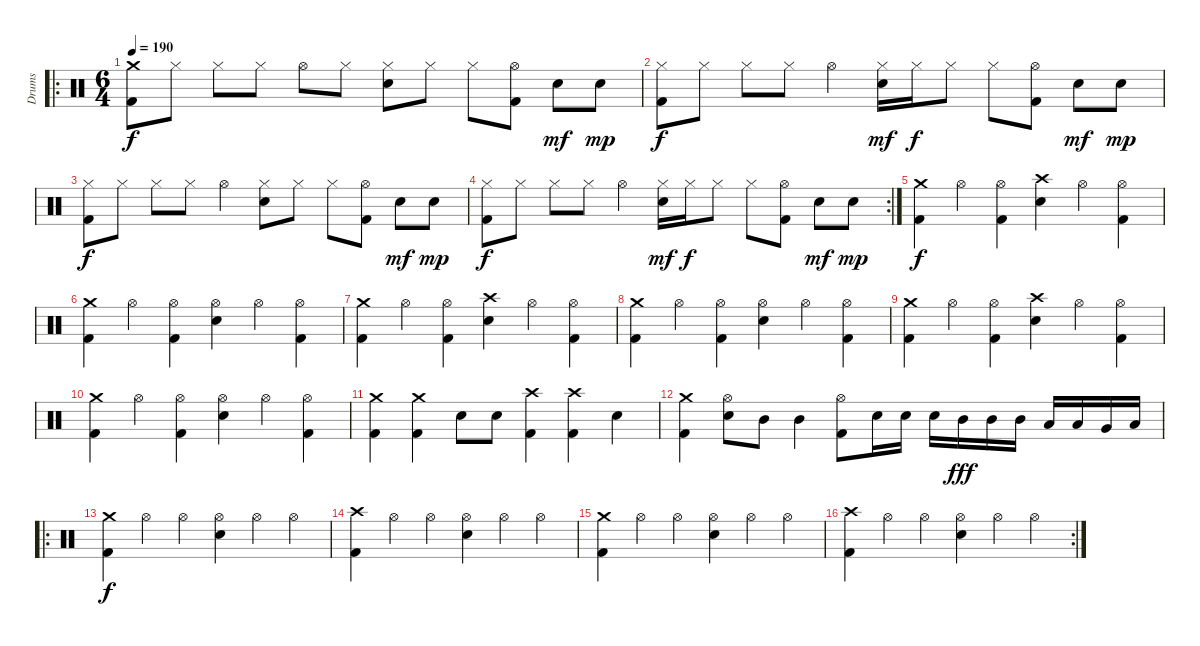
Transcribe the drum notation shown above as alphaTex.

\track ("Drums" "Drums") {instrument percussion}
\staff {score}
\articulation defaults
\ro
\ts (6 4)
\tempo 190
\clef neutral
\ks c
("Crash medium (hit)" "Kick (hit) 2").8{dy f} "Hi-Hat (closed)".8 "Hi-Hat (closed)".8 "Hi-Hat (closed)".8 "Hi-Hat (open)".8 "Hi-Hat (closed)".8 ("Hi-Hat (closed)" "Electric Snare (hit)").8 "Hi-Hat (closed)".8 "Hi-Hat (closed)".8 ("Hi-Hat (open)" "Kick (hit) 2").8 "Electric Snare (hit)".8{dy mf} "Electric Snare (hit)".8{dy mp} |
("Hi-Hat (closed)" "Kick (hit) 2").8{dy f} "Hi-Hat (closed)".8 "Hi-Hat (closed)".8 "Hi-Hat (closed)".8 "Hi-Hat (open)".4 ("Hi-Hat (closed)" "Electric Snare (hit)").16{dy mf} "Hi-Hat (closed)".16{dy f} "Hi-Hat (closed)".8 "Hi-Hat (closed)".8 ("Hi-Hat (open)" "Kick (hit) 2").8 "Electric Snare (hit)".8{dy mf} "Electric Snare (hit)".8{dy mp} |
("Hi-Hat (closed)" "Kick (hit) 2").8{dy f} "Hi-Hat (closed)".8 "Hi-Hat (closed)".8 "Hi-Hat (closed)".8 "Hi-Hat (open)".4 ("Hi-Hat (closed)" "Electric Snare (hit)").8 "Hi-Hat (closed)".8 "Hi-Hat (closed)".8 ("Hi-Hat (open)" "Kick (hit) 2").8 "Electric Snare (hit)".8{dy mf} "Electric Snare (hit)".8{dy mp} |
\rc 2
("Hi-Hat (closed)" "Kick (hit) 2").8{dy f} "Hi-Hat (closed)".8 "Hi-Hat (closed)".8 "Hi-Hat (closed)".8 "Hi-Hat (open)".4 ("Hi-Hat (closed)" "Electric Snare (hit)").16{dy mf} "Hi-Hat (closed)".16{dy f} "Hi-Hat (closed)".8 "Hi-Hat (closed)".8 ("Hi-Hat (open)" "Kick (hit) 2").8 "Electric Snare (hit)".8{dy mf} "Electric Snare (hit)".8{dy mp} |
("Crash medium (hit)" "Kick (hit) 2").4{dy f} "Hi-Hat (open)".4 ("Hi-Hat (open)" "Kick (hit) 2").4 ("Crash high (hit)" "Electric Snare (hit)").4 "Hi-Hat (open)".4 ("Hi-Hat (open)" "Kick (hit) 2").4 |
("Crash medium (hit)" "Kick (hit) 2").4 "Hi-Hat (open)".4 ("Hi-Hat (open)" "Kick (hit) 2").4 ("Hi-Hat (open)" "Electric Snare (hit)").4 "Hi-Hat (open)".4 ("Hi-Hat (open)" "Kick (hit) 2").4 |
("Crash medium (hit)" "Kick (hit) 2").4 "Hi-Hat (open)".4 ("Hi-Hat (open)" "Kick (hit) 2").4 ("Crash high (hit)" "Electric Snare (hit)").4 "Hi-Hat (open)".4 ("Hi-Hat (open)" "Kick (hit) 2").4 |
("Crash medium (hit)" "Kick (hit) 2").4 "Hi-Hat (open)".4 ("Hi-Hat (open)" "Kick (hit) 2").4 ("Hi-Hat (open)" "Electric Snare (hit)").4 "Hi-Hat (open)".4 ("Hi-Hat (open)" "Kick (hit) 2").4 |
("Crash medium (hit)" "Kick (hit) 2").4 "Hi-Hat (open)".4 ("Hi-Hat (open)" "Kick (hit) 2").4 ("Crash high (hit)" "Electric Snare (hit)").4 "Hi-Hat (open)".4 ("Hi-Hat (open)" "Kick (hit) 2").4 |
("Crash medium (hit)" "Kick (hit) 2").4 "Hi-Hat (open)".4 ("Hi-Hat (open)" "Kick (hit) 2").4 ("Hi-Hat (open)" "Electric Snare (hit)").4 "Hi-Hat (open)".4 ("Hi-Hat (open)" "Kick (hit) 2").4 |
("Crash medium (hit)" "Kick (hit) 2").4 ("Crash medium (hit)" "Kick (hit) 2").4 "Electric Snare (hit)".8 "Electric Snare (hit)".8 ("Crash high (hit)" "Kick (hit) 2").4 ("Crash high (hit)" "Kick (hit) 2").4 "Electric Snare (hit)".4 |
("Crash medium (hit)" "Kick (hit) 2").4 ("Hi-Hat (open)" "Electric Snare (hit)").8 "Mid Tom (hit)".8 "Mid Tom (hit)".4 ("Hi-Hat (open)" "Kick (hit) 2").8 "Electric Snare (hit)".16 "Electric Snare (hit)".16 "Electric Snare (hit)".16 "Mid Tom (hit)".16{dy fff} "Mid Tom (hit)".16 "Mid Tom (hit)".16 "Low Tom (hit)".16 "Low Tom (hit)".16 "Very Low Tom (hit)".16 "Low Floor Tom (hit)".16 |
\ro
("Crash medium (hit)" "Kick (hit) 2").4{dy f} "Hi-Hat (open)".4 "Hi-Hat (open)".4 ("Hi-Hat (open)" "Electric Snare (hit)").4 "Hi-Hat (open)".4 "Hi-Hat (open)".4 |
("Crash high (hit)" "Kick (hit) 2").4 "Hi-Hat (open)".4 "Hi-Hat (open)".4 ("Hi-Hat (open)" "Electric Snare (hit)").4 "Hi-Hat (open)".4 "Hi-Hat (open)".4 |
("Crash medium (hit)" "Kick (hit) 2").4 "Hi-Hat (open)".4 "Hi-Hat (open)".4 ("Hi-Hat (open)" "Electric Snare (hit)").4 "Hi-Hat (open)".4 "Hi-Hat (open)".4 |
\rc 2
("Crash high (hit)" "Kick (hit) 2").4 "Hi-Hat (open)".4 "Hi-Hat (open)".4 ("Hi-Hat (open)" "Electric Snare (hit)").4 "Hi-Hat (open)".4 "Hi-Hat (open)".4
